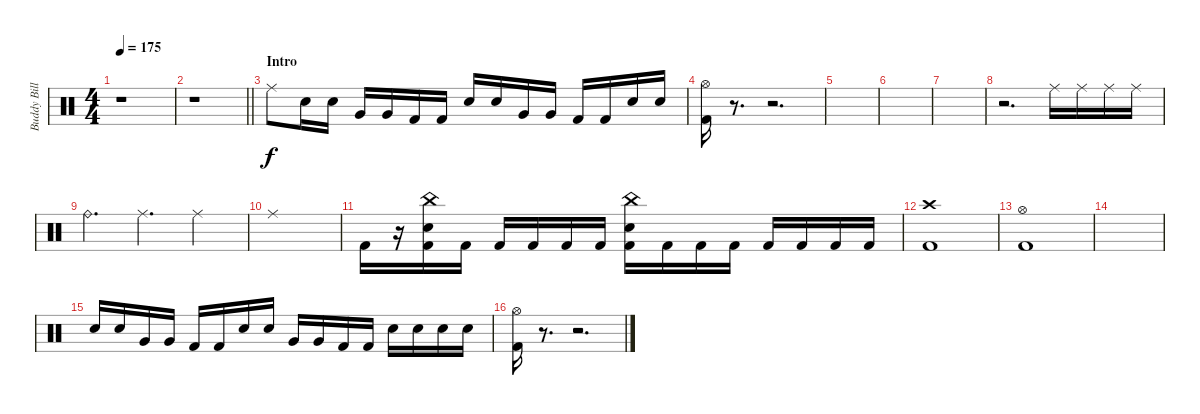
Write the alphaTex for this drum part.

\track ("Buddy Bill" "Buddy Bill") {instrument percussion}
\staff {score}
\articulation defaults
\ts (4 4)
\tempo 175
\clef neutral
\ks c
r.1{dy f} |
\barLineRight lightlight
r.1 |
\section ("" "Intro")
"Ride (middle)".8 "Snare (hit) 2".16 "Snare (hit) 2".16 "Very Low Tom (hit)".16 "Very Low Tom (hit)".16 "Kick (hit) 2".16 "Kick (hit) 2".16 "Snare (hit) 2".16 "Snare (hit) 2".16 "Very Low Tom (hit)".16 "Very Low Tom (hit)".16 "Kick (hit) 2".16 "Kick (hit) 2".16 "Snare (hit) 2".16 "Snare (hit) 2".16 |
("Hi-Hat (open)" "Kick (hit) 2").16 r.8{d} r.2{d} |
|
|
|
r.2{d} "Ride (middle)".16 "Ride (middle)".16 "Ride (middle)".16 "Ride (middle)".16 |
"Ride (bell)".4{d} "Ride (middle)".4{d} "Ride (middle)".4 |
"Ride (middle)".1 |
"Kick (hit) 2".16 r.16 ("China (hit)" "Snare (hit) 2" "Kick (hit) 2").16 "Kick (hit) 2".16 "Kick (hit) 2".16 "Kick (hit) 2".16 "Kick (hit) 2".16 "Kick (hit) 2".16 ("China (hit)" "Snare (hit) 2" "Kick (hit) 2").16 "Kick (hit) 2".16 "Kick (hit) 2".16 "Kick (hit) 2".16 "Kick (hit) 2".16 "Kick (hit) 2".16 "Kick (hit) 2".16 "Kick (hit) 2".16 |
("Crash high (hit)" "Kick (hit) 2").1 |
("Hi-Hat (open)" "Kick (hit) 2").1 |
|
"Snare (hit) 2".16 "Snare (hit) 2".16 "Very Low Tom (hit)".16 "Very Low Tom (hit)".16 "Kick (hit) 2".16 "Kick (hit) 2".16 "Snare (hit) 2".16 "Snare (hit) 2".16 "Very Low Tom (hit)".16 "Very Low Tom (hit)".16 "Kick (hit) 2".16 "Kick (hit) 2".16 "Snare (hit) 2".16 "Snare (hit) 2".16 "Snare (hit) 2".16 "Snare (hit) 2".16 |
("Hi-Hat (open)" "Kick (hit) 2").16 r.8{d} r.2{d}
